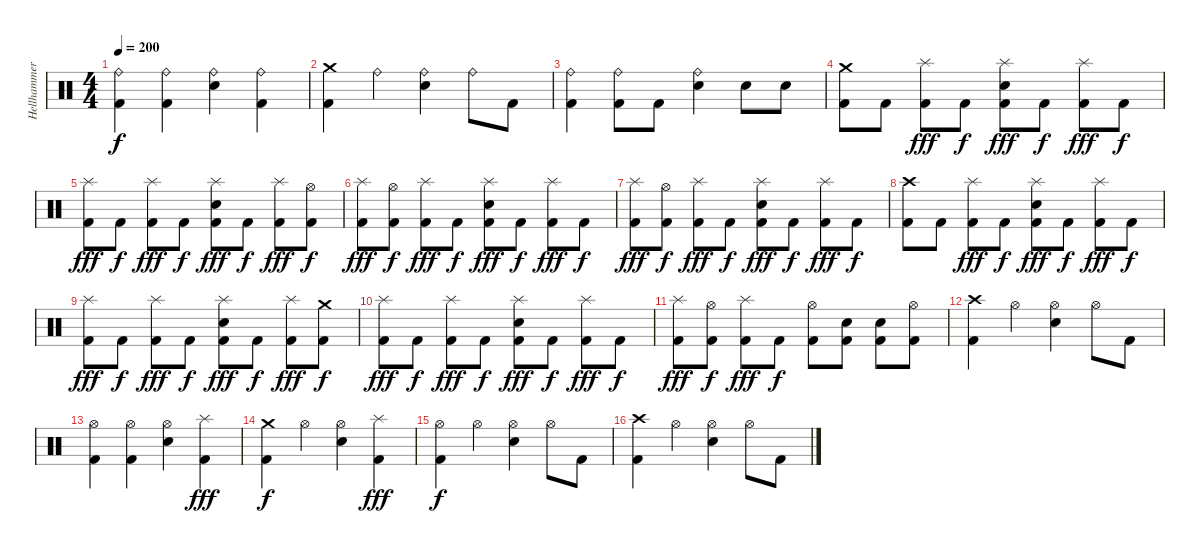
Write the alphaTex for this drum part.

\track ("Hellhammer" "Hellhammer") {instrument percussion}
\staff {score}
\articulation defaults
\ts (4 4)
\tempo 200
\clef neutral
\ks c
("Kick (hit) 2" "Ride (bell)").4{dy f} ("Kick (hit) 2" "Ride (bell)").4 ("Electric Snare (hit)" "Ride (bell)").4 ("Kick (hit) 2" "Ride (bell)").4 |
("Kick (hit) 2" "Crash medium (hit)").4 "Ride (bell)".4 ("Electric Snare (hit)" "Ride (bell)").4 "Ride (bell)".8 "Kick (hit) 2".8 |
("Kick (hit) 2" "Ride (bell)").4 ("Kick (hit) 2" "Ride (bell)").8 "Kick (hit) 2".8 ("Electric Snare (hit)" "Ride (bell)").4 "Electric Snare (hit)".8 "Electric Snare (hit)".8 |
("Kick (hit) 2" "Crash medium (hit)").8 "Kick (hit) 2".8 ("Kick (hit) 2" "Splash (hit)").8{dy fff} "Kick (hit) 2".8{dy f} ("Kick (hit) 2" "Electric Snare (hit)" "Splash (hit)").8{dy fff} "Kick (hit) 2".8{dy f} ("Kick (hit) 2" "Splash (hit)").8{dy fff} "Kick (hit) 2".8{dy f} |
("Kick (hit) 2" "Splash (hit)").8{dy fff} "Kick (hit) 2".8{dy f} ("Kick (hit) 2" "Splash (hit)").8{dy fff} "Kick (hit) 2".8{dy f} ("Kick (hit) 2" "Electric Snare (hit)" "Splash (hit)").8{dy fff} "Kick (hit) 2".8{dy f} ("Kick (hit) 2" "Splash (hit)").8{dy fff} ("Kick (hit) 2" "Hi-Hat (open)").8{dy f} |
("Kick (hit) 2" "Splash (hit)").8{dy fff} ("Kick (hit) 2" "Hi-Hat (open)").8{dy f} ("Kick (hit) 2" "Splash (hit)").8{dy fff} "Kick (hit) 2".8{dy f} ("Kick (hit) 2" "Electric Snare (hit)" "Splash (hit)").8{dy fff} "Kick (hit) 2".8{dy f} ("Kick (hit) 2" "Splash (hit)").8{dy fff} "Kick (hit) 2".8{dy f} |
("Kick (hit) 2" "Splash (hit)").8{dy fff} ("Kick (hit) 2" "Hi-Hat (open)").8{dy f} ("Kick (hit) 2" "Splash (hit)").8{dy fff} "Kick (hit) 2".8{dy f} ("Kick (hit) 2" "Electric Snare (hit)" "Splash (hit)").8{dy fff} "Kick (hit) 2".8{dy f} ("Kick (hit) 2" "Splash (hit)").8{dy fff} "Kick (hit) 2".8{dy f} |
("Kick (hit) 2" "Crash high (hit)").8 "Kick (hit) 2".8 ("Kick (hit) 2" "Splash (hit)").8{dy fff} "Kick (hit) 2".8{dy f} ("Kick (hit) 2" "Electric Snare (hit)" "Splash (hit)").8{dy fff} "Kick (hit) 2".8{dy f} ("Kick (hit) 2" "Splash (hit)").8{dy fff} "Kick (hit) 2".8{dy f} |
("Kick (hit) 2" "Splash (hit)").8{dy fff} "Kick (hit) 2".8{dy f} ("Kick (hit) 2" "Splash (hit)").8{dy fff} "Kick (hit) 2".8{dy f} ("Kick (hit) 2" "Electric Snare (hit)" "Splash (hit)").8{dy fff} "Kick (hit) 2".8{dy f} ("Kick (hit) 2" "Splash (hit)").8{dy fff} ("Kick (hit) 2" "Crash medium (hit)").8{dy f} |
("Kick (hit) 2" "Splash (hit)").8{dy fff} "Kick (hit) 2".8{dy f} ("Kick (hit) 2" "Splash (hit)").8{dy fff} "Kick (hit) 2".8{dy f} ("Kick (hit) 2" "Electric Snare (hit)" "Splash (hit)").8{dy fff} "Kick (hit) 2".8{dy f} ("Kick (hit) 2" "Splash (hit)").8{dy fff} "Kick (hit) 2".8{dy f} |
("Kick (hit) 2" "Splash (hit)").8{dy fff} ("Kick (hit) 2" "Hi-Hat (open)").8{dy f} ("Kick (hit) 2" "Splash (hit)").8{dy fff} "Kick (hit) 2".8{dy f} ("Kick (hit) 2" "Hi-Hat (open)").8 ("Kick (hit) 2" "Electric Snare (hit)").8 ("Kick (hit) 2" "Electric Snare (hit)").8 ("Kick (hit) 2" "Hi-Hat (open)").8 |
("Kick (hit) 2" "Crash high (hit)").4 "Hi-Hat (open)".4 ("Electric Snare (hit)" "Hi-Hat (open)").4 "Hi-Hat (open)".8 "Kick (hit) 2".8 |
("Kick (hit) 2" "Hi-Hat (open)").4 ("Kick (hit) 2" "Hi-Hat (open)").4 ("Electric Snare (hit)" "Hi-Hat (open)").4 ("Kick (hit) 2" "Splash (hit)").4{dy fff} |
("Kick (hit) 2" "Crash medium (hit)").4{dy f} "Hi-Hat (open)".4 ("Electric Snare (hit)" "Hi-Hat (open)").4 ("Kick (hit) 2" "Splash (hit)").4{dy fff} |
("Kick (hit) 2" "Hi-Hat (open)").4{dy f} "Hi-Hat (open)".4 ("Electric Snare (hit)" "Hi-Hat (open)").4 "Hi-Hat (open)".8 "Kick (hit) 2".8 |
("Kick (hit) 2" "Crash high (hit)").4 "Hi-Hat (open)".4 ("Electric Snare (hit)" "Hi-Hat (open)").4 "Hi-Hat (open)".8 "Kick (hit) 2".8
